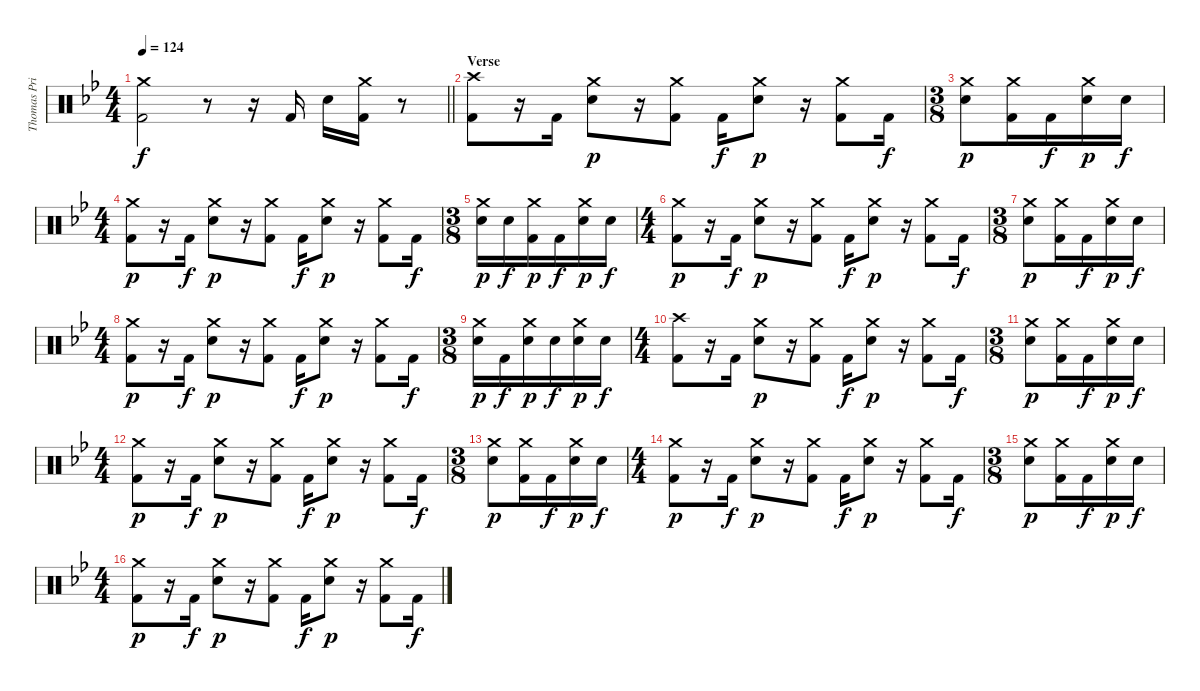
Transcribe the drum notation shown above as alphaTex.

\track ("Thomas Pridgen" "Thomas Pri") {instrument percussion}
\staff {score}
\articulation defaults
\ts (4 4)
\tempo 124
\clef neutral
\barLineRight lightlight
\ks gminor
("Crash medium (hit)" "Kick (hit) 2").2{dy f} r.8 r.16 "Kick (hit) 2".16 "Electric Snare (hit)".16 ("Crash medium (hit)" "Kick (hit) 2").16 r.8 |
\section ("" "Verse")
("Crash high (hit)" "Kick (hit) 2").8 r.16 "Kick (hit) 2".16 ("Crash medium (hit)" "Electric Snare (hit)").8{dy p} r.16 ("Crash medium (hit)" "Kick (hit) 2").8 "Kick (hit) 2".16{dy f} ("Crash medium (hit)" "Electric Snare (hit)").8{dy p} r.16 ("Crash medium (hit)" "Kick (hit) 2").8 "Kick (hit) 2".16{dy f} |
\ts (3 8)
("Crash medium (hit)" "Electric Snare (hit)").8{dy p} ("Crash medium (hit)" "Kick (hit) 2").16 "Kick (hit) 2".16{dy f} ("Crash medium (hit)" "Electric Snare (hit)").16{dy p} "Electric Snare (hit)".16{dy f} |
\ts (4 4)
("Crash medium (hit)" "Kick (hit) 2").8{dy p} r.16 "Kick (hit) 2".16{dy f} ("Crash medium (hit)" "Electric Snare (hit)").8{dy p} r.16 ("Crash medium (hit)" "Kick (hit) 2").8 "Kick (hit) 2".16{dy f} ("Crash medium (hit)" "Electric Snare (hit)").8{dy p} r.16 ("Crash medium (hit)" "Kick (hit) 2").8 "Kick (hit) 2".16{dy f} |
\ts (3 8)
("Crash medium (hit)" "Electric Snare (hit)").16{dy p} "Electric Snare (hit)".16{dy f} ("Crash medium (hit)" "Kick (hit) 2").16{dy p} "Kick (hit) 2".16{dy f} ("Crash medium (hit)" "Electric Snare (hit)").16{dy p} "Electric Snare (hit)".16{dy f} |
\ts (4 4)
("Crash medium (hit)" "Kick (hit) 2").8{dy p} r.16 "Kick (hit) 2".16{dy f} ("Crash medium (hit)" "Electric Snare (hit)").8{dy p} r.16 ("Crash medium (hit)" "Kick (hit) 2").8 "Kick (hit) 2".16{dy f} ("Crash medium (hit)" "Electric Snare (hit)").8{dy p} r.16 ("Crash medium (hit)" "Kick (hit) 2").8 "Kick (hit) 2".16{dy f} |
\ts (3 8)
("Crash medium (hit)" "Electric Snare (hit)").8{dy p} ("Crash medium (hit)" "Kick (hit) 2").16 "Kick (hit) 2".16{dy f} ("Crash medium (hit)" "Electric Snare (hit)").16{dy p} "Electric Snare (hit)".16{dy f} |
\ts (4 4)
("Crash medium (hit)" "Kick (hit) 2").8{dy p} r.16 "Kick (hit) 2".16{dy f} ("Crash medium (hit)" "Electric Snare (hit)").8{dy p} r.16 ("Crash medium (hit)" "Kick (hit) 2").8 "Kick (hit) 2".16{dy f} ("Crash medium (hit)" "Electric Snare (hit)").8{dy p} r.16 ("Crash medium (hit)" "Kick (hit) 2").8 "Kick (hit) 2".16{dy f} |
\ts (3 8)
("Crash medium (hit)" "Electric Snare (hit)").16{dy p} "Kick (hit) 2".16{dy f} ("Crash medium (hit)" "Electric Snare (hit)").16{dy p} "Electric Snare (hit)".16{dy f} ("Crash medium (hit)" "Electric Snare (hit)").16{dy p} "Electric Snare (hit)".16{dy f} |
\ts (4 4)
("Crash high (hit)" "Kick (hit) 2").8 r.16 "Kick (hit) 2".16 ("Crash medium (hit)" "Electric Snare (hit)").8{dy p} r.16 ("Crash medium (hit)" "Kick (hit) 2").8 "Kick (hit) 2".16{dy f} ("Crash medium (hit)" "Electric Snare (hit)").8{dy p} r.16 ("Crash medium (hit)" "Kick (hit) 2").8 "Kick (hit) 2".16{dy f} |
\ts (3 8)
("Crash medium (hit)" "Electric Snare (hit)").8{dy p} ("Crash medium (hit)" "Kick (hit) 2").16 "Kick (hit) 2".16{dy f} ("Crash medium (hit)" "Electric Snare (hit)").16{dy p} "Electric Snare (hit)".16{dy f} |
\ts (4 4)
("Crash medium (hit)" "Kick (hit) 2").8{dy p} r.16 "Kick (hit) 2".16{dy f} ("Crash medium (hit)" "Electric Snare (hit)").8{dy p} r.16 ("Crash medium (hit)" "Kick (hit) 2").8 "Kick (hit) 2".16{dy f} ("Crash medium (hit)" "Electric Snare (hit)").8{dy p} r.16 ("Crash medium (hit)" "Kick (hit) 2").8 "Kick (hit) 2".16{dy f} |
\ts (3 8)
("Crash medium (hit)" "Electric Snare (hit)").8{dy p} ("Crash medium (hit)" "Kick (hit) 2").16 "Kick (hit) 2".16{dy f} ("Crash medium (hit)" "Electric Snare (hit)").16{dy p} "Electric Snare (hit)".16{dy f} |
\ts (4 4)
("Crash medium (hit)" "Kick (hit) 2").8{dy p} r.16 "Kick (hit) 2".16{dy f} ("Crash medium (hit)" "Electric Snare (hit)").8{dy p} r.16 ("Crash medium (hit)" "Kick (hit) 2").8 "Kick (hit) 2".16{dy f} ("Crash medium (hit)" "Electric Snare (hit)").8{dy p} r.16 ("Crash medium (hit)" "Kick (hit) 2").8 "Kick (hit) 2".16{dy f} |
\ts (3 8)
("Crash medium (hit)" "Electric Snare (hit)").8{dy p} ("Crash medium (hit)" "Kick (hit) 2").16 "Kick (hit) 2".16{dy f} ("Crash medium (hit)" "Electric Snare (hit)").16{dy p} "Electric Snare (hit)".16{dy f} |
\ts (4 4)
("Crash medium (hit)" "Kick (hit) 2").8{dy p} r.16 "Kick (hit) 2".16{dy f} ("Crash medium (hit)" "Electric Snare (hit)").8{dy p} r.16 ("Crash medium (hit)" "Kick (hit) 2").8 "Kick (hit) 2".16{dy f} ("Crash medium (hit)" "Electric Snare (hit)").8{dy p} r.16 ("Crash medium (hit)" "Kick (hit) 2").8 "Kick (hit) 2".16{dy f}
